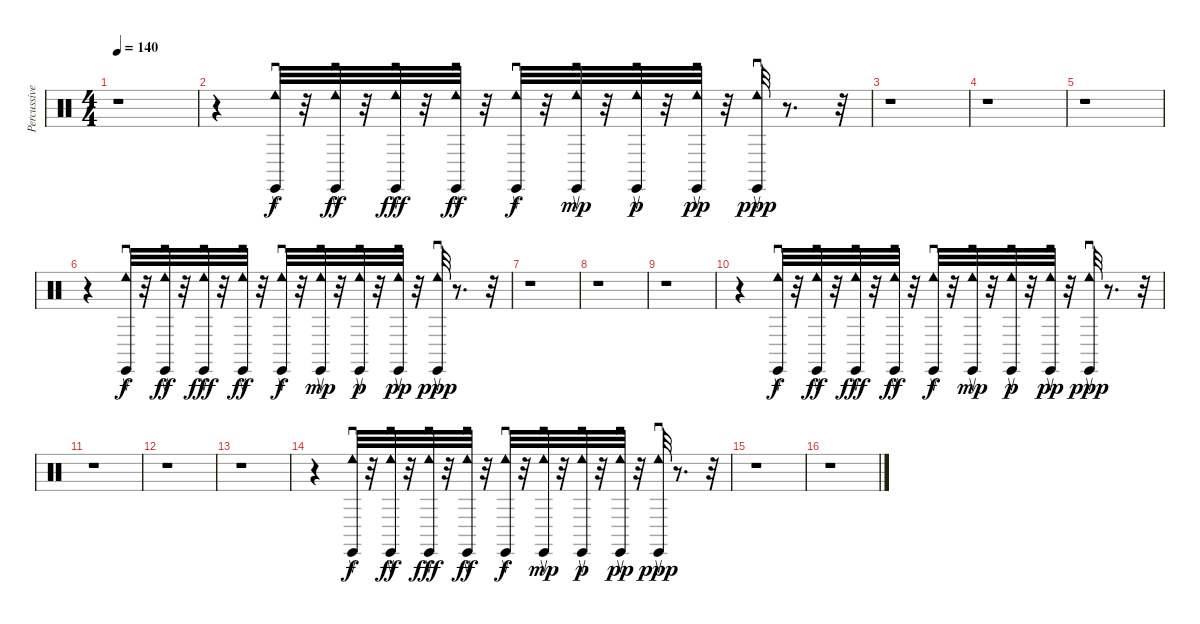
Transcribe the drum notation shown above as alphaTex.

\track ("Percussive Organ" "Percussive") {instrument percussion}
\staff {score}
\articulation defaults
\ts (4 4)
\tempo 140
\clef neutral
\ks c
r.1{dy ppp} |
r.4 ("Cabasa (return)" "Tambourine (roll)").32{dy f} r.32 ("Tambourine (roll)" "Cabasa (return)").32{dy ff} r.32 ("Tambourine (roll)" "Cabasa (return)").32{dy fff} r.32 ("Tambourine (roll)" "Cabasa (return)").32{dy ff} r.32 ("Tambourine (roll)" "Cabasa (return)").32{dy f} r.32 ("Tambourine (roll)" "Cabasa (return)").32{dy mp} r.32 ("Tambourine (roll)" "Cabasa (return)").32{dy p} r.32 ("Tambourine (roll)" "Cabasa (return)").32{dy pp} r.32 ("Cabasa (return)" "Tambourine (roll)").32{dy ppp} r.8{d} r.32 |
r.1 |
r.1 |
r.1 |
r.4 ("Cabasa (return)" "Tambourine (roll)").32{dy f} r.32 ("Tambourine (roll)" "Cabasa (return)").32{dy ff} r.32 ("Tambourine (roll)" "Cabasa (return)").32{dy fff} r.32 ("Tambourine (roll)" "Cabasa (return)").32{dy ff} r.32 ("Tambourine (roll)" "Cabasa (return)").32{dy f} r.32 ("Tambourine (roll)" "Cabasa (return)").32{dy mp} r.32 ("Tambourine (roll)" "Cabasa (return)").32{dy p} r.32 ("Tambourine (roll)" "Cabasa (return)").32{dy pp} r.32 ("Cabasa (return)" "Tambourine (roll)").32{dy ppp} r.8{d} r.32 |
r.1 |
r.1 |
r.1 |
r.4 ("Cabasa (return)" "Tambourine (roll)").32{dy f} r.32 ("Tambourine (roll)" "Cabasa (return)").32{dy ff} r.32 ("Tambourine (roll)" "Cabasa (return)").32{dy fff} r.32 ("Tambourine (roll)" "Cabasa (return)").32{dy ff} r.32 ("Tambourine (roll)" "Cabasa (return)").32{dy f} r.32 ("Tambourine (roll)" "Cabasa (return)").32{dy mp} r.32 ("Tambourine (roll)" "Cabasa (return)").32{dy p} r.32 ("Tambourine (roll)" "Cabasa (return)").32{dy pp} r.32 ("Cabasa (return)" "Tambourine (roll)").32{dy ppp} r.8{d} r.32 |
r.1 |
r.1 |
r.1 |
r.4 ("Cabasa (return)" "Tambourine (roll)").32{dy f} r.32 ("Tambourine (roll)" "Cabasa (return)").32{dy ff} r.32 ("Tambourine (roll)" "Cabasa (return)").32{dy fff} r.32 ("Tambourine (roll)" "Cabasa (return)").32{dy ff} r.32 ("Tambourine (roll)" "Cabasa (return)").32{dy f} r.32 ("Tambourine (roll)" "Cabasa (return)").32{dy mp} r.32 ("Tambourine (roll)" "Cabasa (return)").32{dy p} r.32 ("Tambourine (roll)" "Cabasa (return)").32{dy pp} r.32 ("Cabasa (return)" "Tambourine (roll)").32{dy ppp} r.8{d} r.32 |
r.1 |
r.1
